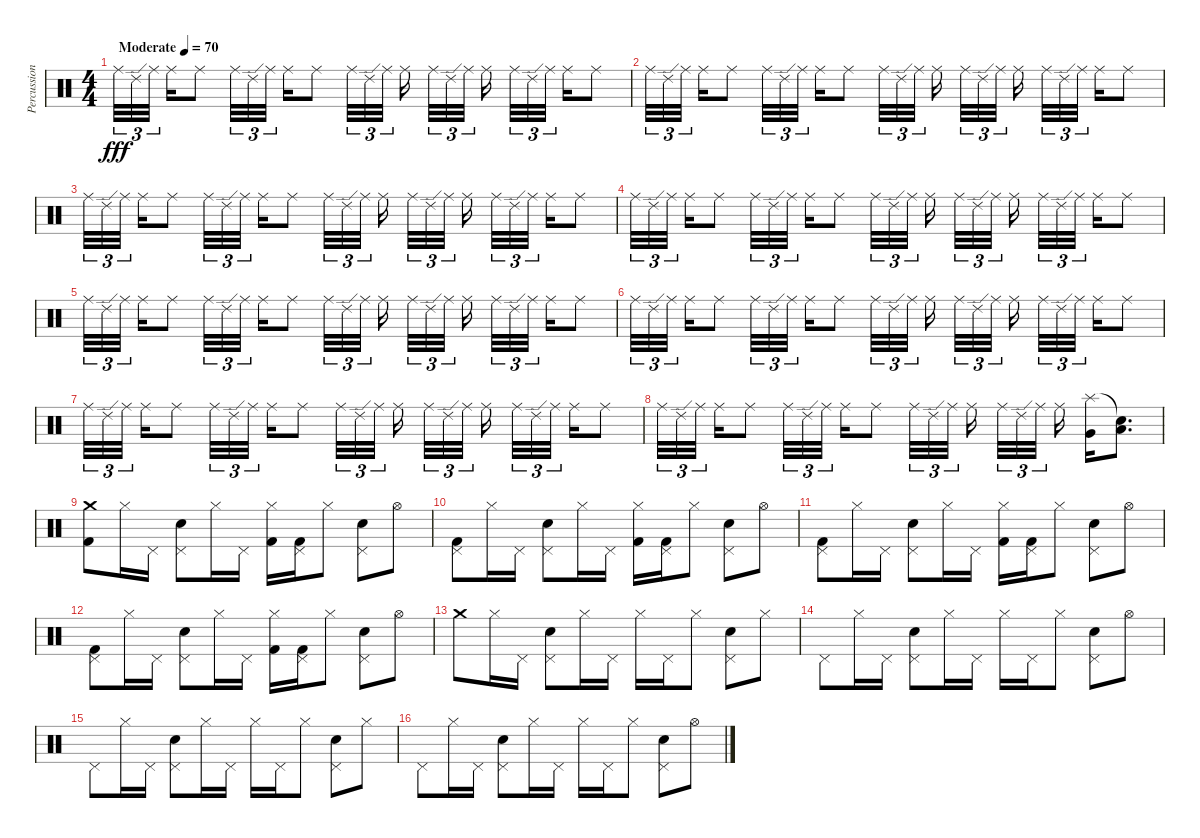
\track ("Percussion" "Percussion") {instrument percussion}
\staff {score}
\articulation defaults
\ts (4 4)
\tempo (70 "Moderate")
\clef neutral
\ks c "Ride (middle)".32{tu (3 2) dy fff} "Ride (edge) 2".32{tu (3 2)} "Ride (middle)".32{tu (3 2) beam splitsecondary} "Ride (middle)".16 "Ride (middle)".8 "Ride (middle)".32{tu (3 2)} "Ride (edge) 2".32{tu (3 2)} "Ride (middle)".32{tu (3 2) beam splitsecondary} "Ride (middle)".16 "Ride (middle)".8 "Ride (middle)".32{tu (3 2)} "Ride (edge) 2".32{tu (3 2)} "Ride (middle)".32{tu (3 2) beam splitsecondary} "Ride (middle)".16{beam splitsecondary} "Ride (middle)".32{tu (3 2)} "Ride (edge) 2".32{tu (3 2)} "Ride (middle)".32{tu (3 2) beam splitsecondary} "Ride (middle)".16 "Ride (middle)".32{tu (3 2)} "Ride (edge) 2".32{tu (3 2)} "Ride (middle)".32{tu (3 2) beam splitsecondary} "Ride (middle)".16 "Ride (middle)".8
|
"Ride (middle)".32{tu (3 2)} "Ride (edge) 2".32{tu (3 2)} "Ride (middle)".32{tu (3 2) beam splitsecondary} "Ride (middle)".16 "Ride (middle)".8 "Ride (middle)".32{tu (3 2)} "Ride (edge) 2".32{tu (3 2)} "Ride (middle)".32{tu (3 2) beam splitsecondary} "Ride (middle)".16 "Ride (middle)".8 "Ride (middle)".32{tu (3 2)} "Ride (edge) 2".32{tu (3 2)} "Ride (middle)".32{tu (3 2) beam splitsecondary} "Ride (middle)".16{beam splitsecondary} "Ride (middle)".32{tu (3 2)} "Ride (edge) 2".32{tu (3 2)} "Ride (middle)".32{tu (3 2) beam splitsecondary} "Ride (middle)".16 "Ride (middle)".32{tu (3 2)} "Ride (edge) 2".32{tu (3 2)} "Ride (middle)".32{tu (3 2) beam splitsecondary} "Ride (middle)".16 "Ride (middle)".8 |
"Ride (middle)".32{tu (3 2)} "Ride (edge) 2".32{tu (3 2)} "Ride (middle)".32{tu (3 2) beam splitsecondary} "Ride (middle)".16 "Ride (middle)".8 "Ride (middle)".32{tu (3 2)} "Ride (edge) 2".32{tu (3 2)} "Ride (middle)".32{tu (3 2) beam splitsecondary} "Ride (middle)".16 "Ride (middle)".8 "Ride (middle)".32{tu (3 2)} "Ride (edge) 2".32{tu (3 2)} "Ride (middle)".32{tu (3 2) beam splitsecondary} "Ride (middle)".16{beam splitsecondary} "Ride (middle)".32{tu (3 2)} "Ride (edge) 2".32{tu (3 2)} "Ride (middle)".32{tu (3 2) beam splitsecondary} "Ride (middle)".16 "Ride (middle)".32{tu (3 2)} "Ride (edge) 2".32{tu (3 2)} "Ride (middle)".32{tu (3 2) beam splitsecondary} "Ride (middle)".16 "Ride (middle)".8 |
"Ride (middle)".32{tu (3 2)} "Ride (edge) 2".32{tu (3 2)} "Ride (middle)".32{tu (3 2) beam splitsecondary} "Ride (middle)".16 "Ride (middle)".8 "Ride (middle)".32{tu (3 2)} "Ride (edge) 2".32{tu (3 2)} "Ride (middle)".32{tu (3 2) beam splitsecondary} "Ride (middle)".16 "Ride (middle)".8 "Ride (middle)".32{tu (3 2)} "Ride (edge) 2".32{tu (3 2)} "Ride (middle)".32{tu (3 2) beam splitsecondary} "Ride (middle)".16{beam splitsecondary} "Ride (middle)".32{tu (3 2)} "Ride (edge) 2".32{tu (3 2)} "Ride (middle)".32{tu (3 2) beam splitsecondary} "Ride (middle)".16 "Ride (middle)".32{tu (3 2)} "Ride (edge) 2".32{tu (3 2)} "Ride (middle)".32{tu (3 2) beam splitsecondary} "Ride (middle)".16 "Ride (middle)".8 |
"Ride (middle)".32{tu (3 2)} "Ride (edge) 2".32{tu (3 2)} "Ride (middle)".32{tu (3 2) beam splitsecondary} "Ride (middle)".16 "Ride (middle)".8 "Ride (middle)".32{tu (3 2)} "Ride (edge) 2".32{tu (3 2)} "Ride (middle)".32{tu (3 2) beam splitsecondary} "Ride (middle)".16 "Ride (middle)".8 "Ride (middle)".32{tu (3 2)} "Ride (edge) 2".32{tu (3 2)} "Ride (middle)".32{tu (3 2) beam splitsecondary} "Ride (middle)".16{beam splitsecondary} "Ride (middle)".32{tu (3 2)} "Ride (edge) 2".32{tu (3 2)} "Ride (middle)".32{tu (3 2) beam splitsecondary} "Ride (middle)".16 "Ride (middle)".32{tu (3 2)} "Ride (edge) 2".32{tu (3 2)} "Ride (middle)".32{tu (3 2) beam splitsecondary} "Ride (middle)".16 "Ride (middle)".8 |
"Ride (middle)".32{tu (3 2)} "Ride (edge) 2".32{tu (3 2)} "Ride (middle)".32{tu (3 2) beam splitsecondary} "Ride (middle)".16 "Ride (middle)".8 "Ride (middle)".32{tu (3 2)} "Ride (edge) 2".32{tu (3 2)} "Ride (middle)".32{tu (3 2) beam splitsecondary} "Ride (middle)".16 "Ride (middle)".8 "Ride (middle)".32{tu (3 2)} "Ride (edge) 2".32{tu (3 2)} "Ride (middle)".32{tu (3 2) beam splitsecondary} "Ride (middle)".16{beam splitsecondary} "Ride (middle)".32{tu (3 2)} "Ride (edge) 2".32{tu (3 2)} "Ride (middle)".32{tu (3 2) beam splitsecondary} "Ride (middle)".16 "Ride (middle)".32{tu (3 2)} "Ride (edge) 2".32{tu (3 2)} "Ride (middle)".32{tu (3 2) beam splitsecondary} "Ride (middle)".16 "Ride (middle)".8 |
"Ride (middle)".32{tu (3 2)} "Ride (edge) 2".32{tu (3 2)} "Ride (middle)".32{tu (3 2) beam splitsecondary} "Ride (middle)".16 "Ride (middle)".8 "Ride (middle)".32{tu (3 2)} "Ride (edge) 2".32{tu (3 2)} "Ride (middle)".32{tu (3 2) beam splitsecondary} "Ride (middle)".16 "Ride (middle)".8 "Ride (middle)".32{tu (3 2)} "Ride (edge) 2".32{tu (3 2)} "Ride (middle)".32{tu (3 2) beam splitsecondary} "Ride (middle)".16{beam splitsecondary} "Ride (middle)".32{tu (3 2)} "Ride (edge) 2".32{tu (3 2)} "Ride (middle)".32{tu (3 2) beam splitsecondary} "Ride (middle)".16 "Ride (middle)".32{tu (3 2)} "Ride (edge) 2".32{tu (3 2)} "Ride (middle)".32{tu (3 2) beam splitsecondary} "Ride (middle)".16 "Ride (middle)".8 |
"Ride (middle)".32{tu (3 2)} "Ride (edge) 2".32{tu (3 2)} "Ride (middle)".32{tu (3 2) beam splitsecondary} "Ride (middle)".16 "Ride (middle)".8 "Ride (middle)".32{tu (3 2)} "Ride (edge) 2".32{tu (3 2)} "Ride (middle)".32{tu (3 2) beam splitsecondary} "Ride (middle)".16 "Ride (middle)".8 "Ride (middle)".32{tu (3 2)} "Ride (edge) 2".32{tu (3 2)} "Ride (middle)".32{tu (3 2) beam splitsecondary} "Ride (middle)".16{beam splitsecondary} "Ride (middle)".32{tu (3 2)} "Ride (edge) 2".32{tu (3 2)} "Ride (middle)".32{tu (3 2) beam splitsecondary} "Ride (middle)".16 ("Splash (hit)" "Very Low Tom (hit)").16 ("Snare (hit)"{t} "Low Tom (hit)").8{d} |
("Crash medium (hit)" "Kick (hit) 2").8 "Hi-Hat (closed)".16 "Pedal Hi-Hat (hit)".16 ("Pedal Hi-Hat (hit)" "Electric Snare (hit)").8 "Hi-Hat (closed)".16 "Pedal Hi-Hat (hit)".16 ("Hi-Hat (closed)" "Kick (hit) 2").16 ("Pedal Hi-Hat (hit)" "Kick (hit) 2").16 "Hi-Hat (closed)".8 ("Pedal Hi-Hat (hit)" "Electric Snare (hit)").8 "Hi-Hat (open)".8 |
("Pedal Hi-Hat (hit)" "Kick (hit) 2").8 "Hi-Hat (closed)".16 "Pedal Hi-Hat (hit)".16 ("Pedal Hi-Hat (hit)" "Electric Snare (hit)").8 "Hi-Hat (closed)".16 "Pedal Hi-Hat (hit)".16 ("Hi-Hat (closed)" "Kick (hit) 2").16 ("Pedal Hi-Hat (hit)" "Kick (hit) 2").16 "Hi-Hat (closed)".8 ("Pedal Hi-Hat (hit)" "Electric Snare (hit)").8 "Hi-Hat (open)".8 |
("Pedal Hi-Hat (hit)" "Kick (hit) 2").8 "Hi-Hat (closed)".16 "Pedal Hi-Hat (hit)".16 ("Pedal Hi-Hat (hit)" "Electric Snare (hit)").8 "Hi-Hat (closed)".16 "Pedal Hi-Hat (hit)".16 ("Hi-Hat (closed)" "Kick (hit) 2").16 ("Pedal Hi-Hat (hit)" "Kick (hit) 2").16 "Hi-Hat (closed)".8 ("Pedal Hi-Hat (hit)" "Electric Snare (hit)").8 "Hi-Hat (open)".8 |
("Pedal Hi-Hat (hit)" "Kick (hit) 2").8 "Hi-Hat (closed)".16 "Pedal Hi-Hat (hit)".16 ("Pedal Hi-Hat (hit)" "Electric Snare (hit)").8 "Hi-Hat (closed)".16 "Pedal Hi-Hat (hit)".16 ("Hi-Hat (closed)" "Kick (hit) 2").16 ("Pedal Hi-Hat (hit)" "Kick (hit) 2").16 "Hi-Hat (closed)".8 ("Pedal Hi-Hat (hit)" "Electric Snare (hit)").8 "Hi-Hat (open)".8 |
"Crash medium (hit)".8 "Hi-Hat (closed)".16 "Pedal Hi-Hat (hit)".16 ("Pedal Hi-Hat (hit)" "Electric Snare (hit)").8 "Hi-Hat (closed)".16 "Pedal Hi-Hat (hit)".16 "Hi-Hat (closed)".16 "Pedal Hi-Hat (hit)".16 "Hi-Hat (closed)".8 ("Pedal Hi-Hat (hit)" "Electric Snare (hit)").8 "Hi-Hat (closed)".8 |
"Pedal Hi-Hat (hit)".8 "Hi-Hat (closed)".16 "Pedal Hi-Hat (hit)".16 ("Pedal Hi-Hat (hit)" "Electric Snare (hit)").8 "Hi-Hat (closed)".16 "Pedal Hi-Hat (hit)".16 "Hi-Hat (closed)".16 "Pedal Hi-Hat (hit)".16 "Hi-Hat (closed)".8 ("Pedal Hi-Hat (hit)" "Electric Snare (hit)").8 "Hi-Hat (open)".8 |
"Pedal Hi-Hat (hit)".8 "Hi-Hat (closed)".16 "Pedal Hi-Hat (hit)".16 ("Pedal Hi-Hat (hit)" "Electric Snare (hit)").8 "Hi-Hat (closed)".16 "Pedal Hi-Hat (hit)".16 "Hi-Hat (closed)".16 "Pedal Hi-Hat (hit)".16 "Hi-Hat (closed)".8 ("Pedal Hi-Hat (hit)" "Electric Snare (hit)").8 "Hi-Hat (closed)".8 |
"Pedal Hi-Hat (hit)".8 "Hi-Hat (closed)".16 "Pedal Hi-Hat (hit)".16 ("Pedal Hi-Hat (hit)" "Electric Snare (hit)").8 "Hi-Hat (closed)".16 "Pedal Hi-Hat (hit)".16 "Hi-Hat (closed)".16 "Pedal Hi-Hat (hit)".16 "Hi-Hat (closed)".8 ("Pedal Hi-Hat (hit)" "Electric Snare (hit)").8 "Hi-Hat (open)".8
